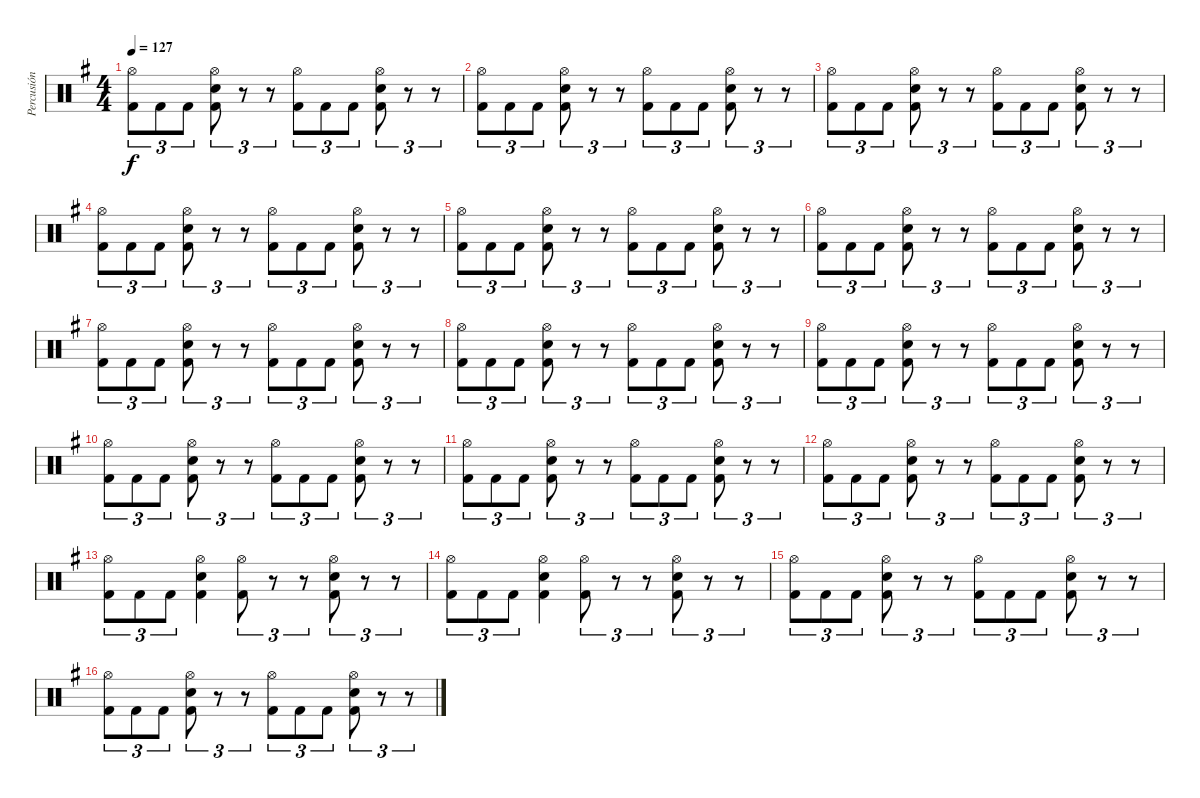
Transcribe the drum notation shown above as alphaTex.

\track ("Percusión" "Percusión") {instrument percussion}
\staff {score}
\articulation defaults
\ts (4 4)
\tempo 127
\clef neutral
\ks eminor
("Hi-Hat (open)" "Kick (hit) 2").8{tu (3 2) dy f} "Kick (hit) 2".8{tu (3 2)} "Kick (hit) 2".8{tu (3 2)} ("Hi-Hat (open)" "Kick (hit) 2" "Electric Snare (hit)").8{tu (3 2)} r.8{tu (3 2)} r.8{tu (3 2)} ("Hi-Hat (open)" "Kick (hit) 2").8{tu (3 2)} "Kick (hit) 2".8{tu (3 2)} "Kick (hit) 2".8{tu (3 2)} ("Hi-Hat (open)" "Kick (hit) 2" "Electric Snare (hit)").8{tu (3 2)} r.8{tu (3 2)} r.8{tu (3 2)} |
("Hi-Hat (open)" "Kick (hit) 2").8{tu (3 2)} "Kick (hit) 2".8{tu (3 2)} "Kick (hit) 2".8{tu (3 2)} ("Hi-Hat (open)" "Kick (hit) 2" "Electric Snare (hit)").8{tu (3 2)} r.8{tu (3 2)} r.8{tu (3 2)} ("Hi-Hat (open)" "Kick (hit) 2").8{tu (3 2)} "Kick (hit) 2".8{tu (3 2)} "Kick (hit) 2".8{tu (3 2)} ("Hi-Hat (open)" "Kick (hit) 2" "Electric Snare (hit)").8{tu (3 2)} r.8{tu (3 2)} r.8{tu (3 2)} |
("Hi-Hat (open)" "Kick (hit) 2").8{tu (3 2)} "Kick (hit) 2".8{tu (3 2)} "Kick (hit) 2".8{tu (3 2)} ("Hi-Hat (open)" "Kick (hit) 2" "Electric Snare (hit)").8{tu (3 2)} r.8{tu (3 2)} r.8{tu (3 2)} ("Hi-Hat (open)" "Kick (hit) 2").8{tu (3 2)} "Kick (hit) 2".8{tu (3 2)} "Kick (hit) 2".8{tu (3 2)} ("Hi-Hat (open)" "Kick (hit) 2" "Electric Snare (hit)").8{tu (3 2)} r.8{tu (3 2)} r.8{tu (3 2)} |
("Hi-Hat (open)" "Kick (hit) 2").8{tu (3 2)} "Kick (hit) 2".8{tu (3 2)} "Kick (hit) 2".8{tu (3 2)} ("Hi-Hat (open)" "Kick (hit) 2" "Electric Snare (hit)").8{tu (3 2)} r.8{tu (3 2)} r.8{tu (3 2)} ("Hi-Hat (open)" "Kick (hit) 2").8{tu (3 2)} "Kick (hit) 2".8{tu (3 2)} "Kick (hit) 2".8{tu (3 2)} ("Hi-Hat (open)" "Kick (hit) 2" "Electric Snare (hit)").8{tu (3 2)} r.8{tu (3 2)} r.8{tu (3 2)} |
("Hi-Hat (open)" "Kick (hit) 2").8{tu (3 2)} "Kick (hit) 2".8{tu (3 2)} "Kick (hit) 2".8{tu (3 2)} ("Hi-Hat (open)" "Kick (hit) 2" "Electric Snare (hit)").8{tu (3 2)} r.8{tu (3 2)} r.8{tu (3 2)} ("Hi-Hat (open)" "Kick (hit) 2").8{tu (3 2)} "Kick (hit) 2".8{tu (3 2)} "Kick (hit) 2".8{tu (3 2)} ("Hi-Hat (open)" "Kick (hit) 2" "Electric Snare (hit)").8{tu (3 2)} r.8{tu (3 2)} r.8{tu (3 2)} |
("Hi-Hat (open)" "Kick (hit) 2").8{tu (3 2)} "Kick (hit) 2".8{tu (3 2)} "Kick (hit) 2".8{tu (3 2)} ("Hi-Hat (open)" "Kick (hit) 2" "Electric Snare (hit)").8{tu (3 2)} r.8{tu (3 2)} r.8{tu (3 2)} ("Hi-Hat (open)" "Kick (hit) 2").8{tu (3 2)} "Kick (hit) 2".8{tu (3 2)} "Kick (hit) 2".8{tu (3 2)} ("Hi-Hat (open)" "Kick (hit) 2" "Electric Snare (hit)").8{tu (3 2)} r.8{tu (3 2)} r.8{tu (3 2)} |
("Hi-Hat (open)" "Kick (hit) 2").8{tu (3 2)} "Kick (hit) 2".8{tu (3 2)} "Kick (hit) 2".8{tu (3 2)} ("Hi-Hat (open)" "Kick (hit) 2" "Electric Snare (hit)").8{tu (3 2)} r.8{tu (3 2)} r.8{tu (3 2)} ("Hi-Hat (open)" "Kick (hit) 2").8{tu (3 2)} "Kick (hit) 2".8{tu (3 2)} "Kick (hit) 2".8{tu (3 2)} ("Hi-Hat (open)" "Kick (hit) 2" "Electric Snare (hit)").8{tu (3 2)} r.8{tu (3 2)} r.8{tu (3 2)} |
("Hi-Hat (open)" "Kick (hit) 2").8{tu (3 2)} "Kick (hit) 2".8{tu (3 2)} "Kick (hit) 2".8{tu (3 2)} ("Hi-Hat (open)" "Kick (hit) 2" "Electric Snare (hit)").8{tu (3 2)} r.8{tu (3 2)} r.8{tu (3 2)} ("Hi-Hat (open)" "Kick (hit) 2").8{tu (3 2)} "Kick (hit) 2".8{tu (3 2)} "Kick (hit) 2".8{tu (3 2)} ("Hi-Hat (open)" "Kick (hit) 2" "Electric Snare (hit)").8{tu (3 2)} r.8{tu (3 2)} r.8{tu (3 2)} |
("Hi-Hat (open)" "Kick (hit) 2").8{tu (3 2)} "Kick (hit) 2".8{tu (3 2)} "Kick (hit) 2".8{tu (3 2)} ("Hi-Hat (open)" "Kick (hit) 2" "Electric Snare (hit)").8{tu (3 2)} r.8{tu (3 2)} r.8{tu (3 2)} ("Hi-Hat (open)" "Kick (hit) 2").8{tu (3 2)} "Kick (hit) 2".8{tu (3 2)} "Kick (hit) 2".8{tu (3 2)} ("Hi-Hat (open)" "Kick (hit) 2" "Electric Snare (hit)").8{tu (3 2)} r.8{tu (3 2)} r.8{tu (3 2)} |
("Hi-Hat (open)" "Kick (hit) 2").8{tu (3 2)} "Kick (hit) 2".8{tu (3 2)} "Kick (hit) 2".8{tu (3 2)} ("Hi-Hat (open)" "Kick (hit) 2" "Electric Snare (hit)").8{tu (3 2)} r.8{tu (3 2)} r.8{tu (3 2)} ("Hi-Hat (open)" "Kick (hit) 2").8{tu (3 2)} "Kick (hit) 2".8{tu (3 2)} "Kick (hit) 2".8{tu (3 2)} ("Hi-Hat (open)" "Kick (hit) 2" "Electric Snare (hit)").8{tu (3 2)} r.8{tu (3 2)} r.8{tu (3 2)} |
("Hi-Hat (open)" "Kick (hit) 2").8{tu (3 2)} "Kick (hit) 2".8{tu (3 2)} "Kick (hit) 2".8{tu (3 2)} ("Hi-Hat (open)" "Kick (hit) 2" "Electric Snare (hit)").8{tu (3 2)} r.8{tu (3 2)} r.8{tu (3 2)} ("Hi-Hat (open)" "Kick (hit) 2").8{tu (3 2)} "Kick (hit) 2".8{tu (3 2)} "Kick (hit) 2".8{tu (3 2)} ("Hi-Hat (open)" "Kick (hit) 2" "Electric Snare (hit)").8{tu (3 2)} r.8{tu (3 2)} r.8{tu (3 2)} |
("Hi-Hat (open)" "Kick (hit) 2").8{tu (3 2)} "Kick (hit) 2".8{tu (3 2)} "Kick (hit) 2".8{tu (3 2)} ("Hi-Hat (open)" "Kick (hit) 2" "Electric Snare (hit)").8{tu (3 2)} r.8{tu (3 2)} r.8{tu (3 2)} ("Hi-Hat (open)" "Kick (hit) 2").8{tu (3 2)} "Kick (hit) 2".8{tu (3 2)} "Kick (hit) 2".8{tu (3 2)} ("Hi-Hat (open)" "Kick (hit) 2" "Electric Snare (hit)").8{tu (3 2)} r.8{tu (3 2)} r.8{tu (3 2)} |
("Kick (hit) 2" "Hi-Hat (open)").8{tu (3 2)} "Kick (hit) 2".8{tu (3 2)} "Kick (hit) 2".8{tu (3 2)} ("Kick (hit) 2" "Hi-Hat (open)" "Electric Snare (hit)").4 ("Hi-Hat (open)" "Kick (hit) 2").8{tu (3 2)} r.8{tu (3 2)} r.8{tu (3 2)} ("Hi-Hat (open)" "Kick (hit) 2" "Electric Snare (hit)").8{tu (3 2)} r.8{tu (3 2)} r.8{tu (3 2)} |
("Kick (hit) 2" "Hi-Hat (open)").8{tu (3 2)} "Kick (hit) 2".8{tu (3 2)} "Kick (hit) 2".8{tu (3 2)} ("Kick (hit) 2" "Hi-Hat (open)" "Electric Snare (hit)").4 ("Hi-Hat (open)" "Kick (hit) 2").8{tu (3 2)} r.8{tu (3 2)} r.8{tu (3 2)} ("Hi-Hat (open)" "Kick (hit) 2" "Electric Snare (hit)").8{tu (3 2)} r.8{tu (3 2)} r.8{tu (3 2)} |
("Hi-Hat (open)" "Kick (hit) 2").8{tu (3 2)} "Kick (hit) 2".8{tu (3 2)} "Kick (hit) 2".8{tu (3 2)} ("Hi-Hat (open)" "Kick (hit) 2" "Electric Snare (hit)").8{tu (3 2)} r.8{tu (3 2)} r.8{tu (3 2)} ("Hi-Hat (open)" "Kick (hit) 2").8{tu (3 2)} "Kick (hit) 2".8{tu (3 2)} "Kick (hit) 2".8{tu (3 2)} ("Hi-Hat (open)" "Kick (hit) 2" "Electric Snare (hit)").8{tu (3 2)} r.8{tu (3 2)} r.8{tu (3 2)} |
("Hi-Hat (open)" "Kick (hit) 2").8{tu (3 2)} "Kick (hit) 2".8{tu (3 2)} "Kick (hit) 2".8{tu (3 2)} ("Hi-Hat (open)" "Kick (hit) 2" "Electric Snare (hit)").8{tu (3 2)} r.8{tu (3 2)} r.8{tu (3 2)} ("Hi-Hat (open)" "Kick (hit) 2").8{tu (3 2)} "Kick (hit) 2".8{tu (3 2)} "Kick (hit) 2".8{tu (3 2)} ("Hi-Hat (open)" "Kick (hit) 2" "Electric Snare (hit)").8{tu (3 2)} r.8{tu (3 2)} r.8{tu (3 2)}
